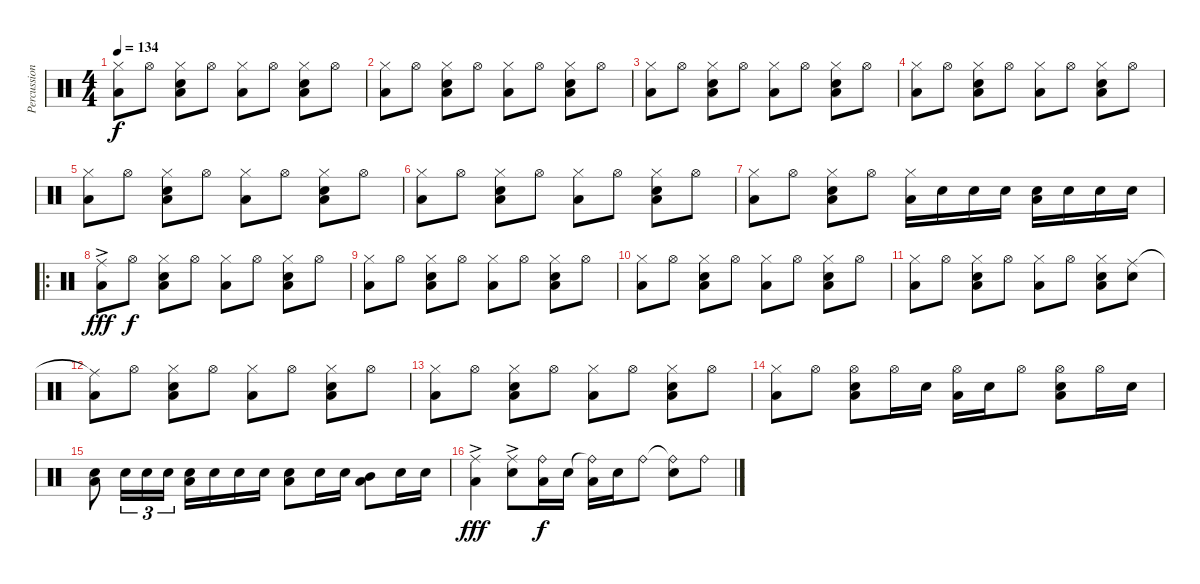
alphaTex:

\track ("Percussion" "Percussion") {instrument percussion}
\staff {score}
\articulation defaults
\ts (4 4)
\tempo 134
\clef neutral
\ks c
("Hi-Hat (closed)" "Low Floor Tom (hit)").8{dy f} "Hi-Hat (open)".8 ("Hi-Hat (closed)" "Snare (hit) 2" "Low Floor Tom (hit)").8 "Hi-Hat (open)".8 ("Hi-Hat (closed)" "Low Floor Tom (hit)").8 "Hi-Hat (open)".8 ("Hi-Hat (closed)" "Snare (hit) 2" "Low Floor Tom (hit)").8 "Hi-Hat (open)".8 |
("Hi-Hat (closed)" "Low Floor Tom (hit)").8 "Hi-Hat (open)".8 ("Hi-Hat (closed)" "Snare (hit) 2" "Low Floor Tom (hit)").8 "Hi-Hat (open)".8 ("Hi-Hat (closed)" "Low Floor Tom (hit)").8 "Hi-Hat (open)".8 ("Hi-Hat (closed)" "Snare (hit) 2" "Low Floor Tom (hit)").8 "Hi-Hat (open)".8 |
("Hi-Hat (closed)" "Low Floor Tom (hit)").8 "Hi-Hat (open)".8 ("Hi-Hat (closed)" "Snare (hit) 2" "Low Floor Tom (hit)").8 "Hi-Hat (open)".8 ("Hi-Hat (closed)" "Low Floor Tom (hit)").8 "Hi-Hat (open)".8 ("Hi-Hat (closed)" "Snare (hit) 2" "Low Floor Tom (hit)").8 "Hi-Hat (open)".8 |
("Hi-Hat (closed)" "Low Floor Tom (hit)").8 "Hi-Hat (open)".8 ("Hi-Hat (closed)" "Snare (hit) 2" "Low Floor Tom (hit)").8 "Hi-Hat (open)".8 ("Hi-Hat (closed)" "Low Floor Tom (hit)").8 "Hi-Hat (open)".8 ("Hi-Hat (closed)" "Snare (hit) 2" "Low Floor Tom (hit)").8 "Hi-Hat (open)".8 |
("Hi-Hat (closed)" "Low Floor Tom (hit)").8 "Hi-Hat (open)".8 ("Hi-Hat (closed)" "Snare (hit) 2" "Low Floor Tom (hit)").8 "Hi-Hat (open)".8 ("Hi-Hat (closed)" "Low Floor Tom (hit)").8 "Hi-Hat (open)".8 ("Hi-Hat (closed)" "Snare (hit) 2" "Low Floor Tom (hit)").8 "Hi-Hat (open)".8 |
("Hi-Hat (closed)" "Low Floor Tom (hit)").8 "Hi-Hat (open)".8 ("Hi-Hat (closed)" "Snare (hit) 2" "Low Floor Tom (hit)").8 "Hi-Hat (open)".8 ("Hi-Hat (closed)" "Low Floor Tom (hit)").8 "Hi-Hat (open)".8 ("Hi-Hat (closed)" "Snare (hit) 2" "Low Floor Tom (hit)").8 "Hi-Hat (open)".8 |
("Hi-Hat (closed)" "Low Floor Tom (hit)").8 "Hi-Hat (open)".8 ("Hi-Hat (closed)" "Snare (hit) 2" "Low Floor Tom (hit)").8 "Hi-Hat (open)".8 ("Hi-Hat (closed)" "Low Floor Tom (hit)").16 "Snare (hit) 2".16 "Snare (hit) 2".16 "Snare (hit) 2".16 ("Snare (hit) 2" "Low Floor Tom (hit)").16 "Snare (hit) 2".16 "Snare (hit) 2".16 "Snare (hit) 2".16 |
\ro
("Ride (middle)"{ac} "Low Floor Tom (hit)").8{dy fff} "Hi-Hat (open)".8{dy f} ("Hi-Hat (closed)" "Snare (hit) 2" "Low Floor Tom (hit)").8 "Hi-Hat (open)".8 ("Hi-Hat (closed)" "Low Floor Tom (hit)").8 "Hi-Hat (open)".8 ("Hi-Hat (closed)" "Snare (hit) 2" "Low Floor Tom (hit)").8 "Hi-Hat (open)".8 |
("Hi-Hat (closed)" "Low Floor Tom (hit)").8 "Hi-Hat (open)".8 ("Hi-Hat (closed)" "Snare (hit) 2" "Low Floor Tom (hit)").8 "Hi-Hat (open)".8 ("Hi-Hat (closed)" "Low Floor Tom (hit)").8 "Hi-Hat (open)".8 ("Hi-Hat (closed)" "Snare (hit) 2" "Low Floor Tom (hit)").8 "Hi-Hat (open)".8 |
("Hi-Hat (closed)" "Low Floor Tom (hit)").8 "Hi-Hat (open)".8 ("Hi-Hat (closed)" "Snare (hit) 2" "Low Floor Tom (hit)").8 "Hi-Hat (open)".8 ("Hi-Hat (closed)" "Low Floor Tom (hit)").8 "Hi-Hat (open)".8 ("Hi-Hat (closed)" "Snare (hit) 2" "Low Floor Tom (hit)").8 "Hi-Hat (open)".8 |
("Hi-Hat (closed)" "Low Floor Tom (hit)").8 "Hi-Hat (open)".8 ("Hi-Hat (closed)" "Snare (hit) 2" "Low Floor Tom (hit)").8 "Hi-Hat (open)".8 ("Hi-Hat (closed)" "Low Floor Tom (hit)").8 "Hi-Hat (open)".8 ("Hi-Hat (closed)" "Snare (hit) 2" "Low Floor Tom (hit)").8 ("Ride (middle)" "Snare (hit) 2").8 |
("Ride (middle)"{t} "Low Floor Tom (hit)").8 "Hi-Hat (open)".8 ("Hi-Hat (closed)" "Snare (hit) 2" "Low Floor Tom (hit)").8 "Hi-Hat (open)".8 ("Hi-Hat (closed)" "Low Floor Tom (hit)").8 "Hi-Hat (open)".8 ("Hi-Hat (closed)" "Snare (hit) 2" "Low Floor Tom (hit)").8 "Hi-Hat (open)".8 |
("Hi-Hat (closed)" "Low Floor Tom (hit)").8 "Hi-Hat (open)".8 ("Hi-Hat (closed)" "Snare (hit) 2" "Low Floor Tom (hit)").8 "Hi-Hat (open)".8 ("Hi-Hat (closed)" "Low Floor Tom (hit)").8 "Hi-Hat (open)".8 ("Hi-Hat (closed)" "Snare (hit) 2" "Low Floor Tom (hit)").8 "Hi-Hat (open)".8 |
("Hi-Hat (closed)" "Low Floor Tom (hit)").8 "Hi-Hat (open)".8 ("Hi-Hat (open)" "Snare (hit) 2" "Low Floor Tom (hit)").8 "Hi-Hat (open)".16 "Snare (hit) 2".16 ("Hi-Hat (open)" "Low Floor Tom (hit)").16 "Snare (hit) 2".16 "Hi-Hat (open)".8 ("Hi-Hat (open)" "Snare (hit) 2" "Low Floor Tom (hit)").8 "Hi-Hat (open)".16 "Snare (hit) 2".16 |
("Snare (hit) 2" "Low Floor Tom (hit)").8 "Snare (hit) 2".16{tu (3 2)} "Snare (hit) 2".16{tu (3 2)} "Snare (hit) 2".16{tu (3 2)} ("Snare (hit) 2" "Low Floor Tom (hit)").16 "Snare (hit) 2".16 "Snare (hit) 2".16 "Snare (hit) 2".16 ("Snare (hit) 2" "Low Floor Tom (hit)").8 "Snare (hit) 2".16 "Snare (hit) 2".16 ("Mid Tom (hit)" "Low Floor Tom (hit)").8 "Snare (hit) 2".16 "Snare (hit) 2".16 |
("Ride (middle)"{ac} "Low Floor Tom (hit)").4{dy fff} ("Ride (middle)"{ac} "Snare (hit) 2").8 ("Ride (bell)" "Low Floor Tom (hit)").16{dy f} "Snare (hit) 2".16 ("Ride (bell)"{t} "Low Floor Tom (hit)").16 "Snare (hit) 2".16 "Ride (bell)".8 ("Ride (bell)"{t} "Snare (hit) 2").8 "Ride (bell)".8
